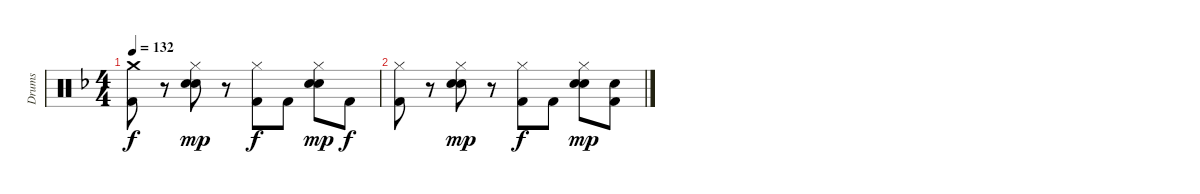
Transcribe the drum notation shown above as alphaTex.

\track ("Drums" "Drums") {instrument percussion}
\staff {score}
\articulation defaults
\ts (4 4)
\tempo 132
\clef neutral
\ks f
("Crash medium (hit)" "Kick (hit) 2").8{dy f} r.8 ("Hi-Hat (closed)" "Hand Clap (hit)" "Snare (hit) 2").8{dy mp} r.8 ("Hi-Hat (closed)" "Kick (hit) 2").8{dy f} "Kick (hit) 2".8 ("Hi-Hat (closed)" "Hand Clap (hit)" "Snare (hit) 2").8{dy mp} "Kick (hit) 2".8{dy f} |
("Hi-Hat (closed)" "Kick (hit) 2").8 r.8 ("Hi-Hat (closed)" "Hand Clap (hit)" "Snare (hit) 2").8{dy mp} r.8 ("Hi-Hat (closed)" "Kick (hit) 2").8{dy f} "Kick (hit) 2".8 ("Hi-Hat (closed)" "Hand Clap (hit)" "Snare (hit) 2").8{dy mp} ("Hand Clap (hit)" "Kick (hit) 2").8
